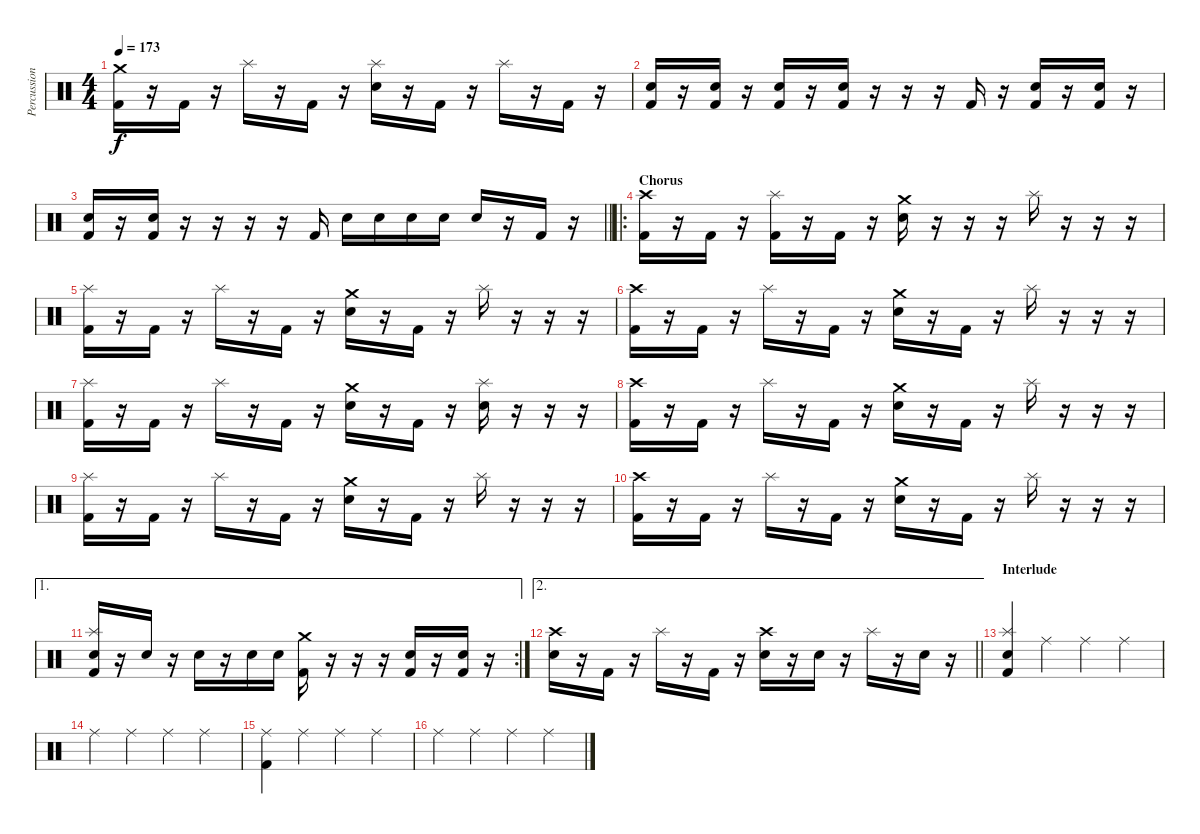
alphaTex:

\track ("Percussion" "Percussion") {instrument percussion}
\staff {score}
\articulation defaults
\ts (4 4)
\tempo 173
\clef neutral
\ks c
("Crash medium (hit)" "Kick (hit) 2").16{dy f} r.16 "Kick (hit) 2".16 r.16 "Splash (hit)".16 r.16 "Kick (hit) 2".16 r.16 ("Splash (hit)" "Electric Snare (hit)").16 r.16 "Kick (hit) 2".16 r.16 "Splash (hit)".16 r.16 "Kick (hit) 2".16 r.16 |
("Electric Snare (hit)" "Kick (hit) 2").16 r.16 ("Electric Snare (hit)" "Kick (hit) 2").16 r.16 ("Electric Snare (hit)" "Kick (hit) 2").16 r.16 ("Electric Snare (hit)" "Kick (hit) 2").16 r.16 r.16 r.16 "Kick (hit) 2".16 r.16 ("Electric Snare (hit)" "Kick (hit) 2").16 r.16 ("Electric Snare (hit)" "Kick (hit) 2").16 r.16 |
\barLineRight lightlight
("Electric Snare (hit)" "Kick (hit) 2").16 r.16 ("Electric Snare (hit)" "Kick (hit) 2").16 r.16 r.16 r.16 r.16 "Kick (hit) 2".16 "Electric Snare (hit)".16 "Electric Snare (hit)".16 "Electric Snare (hit)".16 "Electric Snare (hit)".16 "Electric Snare (hit)".16 r.16 "Kick (hit) 2".16 r.16 |
\ro
\section ("" "Chorus")
("Crash high (hit)" "Kick (hit) 2").16 r.16 "Kick (hit) 2".16 r.16 ("Splash (hit)" "Kick (hit) 2").16 r.16 "Kick (hit) 2".16 r.16 ("Crash medium (hit)" "Electric Snare (hit)").16 r.16 r.16 r.16 "Splash (hit)".16 r.16 r.16 r.16 |
("Splash (hit)" "Kick (hit) 2").16 r.16 "Kick (hit) 2".16 r.16 "Splash (hit)".16 r.16 "Kick (hit) 2".16 r.16 ("Crash medium (hit)" "Electric Snare (hit)").16 r.16 "Kick (hit) 2".16 r.16 "Splash (hit)".16 r.16 r.16 r.16 |
("Crash high (hit)" "Kick (hit) 2").16 r.16 "Kick (hit) 2".16 r.16 "Splash (hit)".16 r.16 "Kick (hit) 2".16 r.16 ("Crash medium (hit)" "Electric Snare (hit)").16 r.16 "Kick (hit) 2".16 r.16 "Splash (hit)".16 r.16 r.16 r.16 |
("Splash (hit)" "Kick (hit) 2").16 r.16 "Kick (hit) 2".16 r.16 "Splash (hit)".16 r.16 "Kick (hit) 2".16 r.16 ("Crash medium (hit)" "Electric Snare (hit)").16 r.16 "Kick (hit) 2".16 r.16 ("Splash (hit)" "Electric Snare (hit)").16 r.16 r.16 r.16 |
("Crash high (hit)" "Kick (hit) 2").16 r.16 "Kick (hit) 2".16 r.16 "Splash (hit)".16 r.16 "Kick (hit) 2".16 r.16 ("Crash medium (hit)" "Electric Snare (hit)").16 r.16 "Kick (hit) 2".16 r.16 "Splash (hit)".16 r.16 r.16 r.16 |
("Splash (hit)" "Kick (hit) 2").16 r.16 "Kick (hit) 2".16 r.16 "Splash (hit)".16 r.16 "Kick (hit) 2".16 r.16 ("Crash medium (hit)" "Electric Snare (hit)").16 r.16 "Kick (hit) 2".16 r.16 "Splash (hit)".16 r.16 r.16 r.16 |
("Crash high (hit)" "Kick (hit) 2").16 r.16 "Kick (hit) 2".16 r.16 "Splash (hit)".16 r.16 "Kick (hit) 2".16 r.16 ("Crash medium (hit)" "Electric Snare (hit)").16 r.16 "Kick (hit) 2".16 r.16 "Splash (hit)".16 r.16 r.16 r.16 |
\ae 1
\rc 2
("Splash (hit)" "Electric Snare (hit)" "Kick (hit) 2").16 r.16 "Electric Snare (hit)".16 r.16 "Electric Snare (hit)".16 r.16 "Electric Snare (hit)".16 "Electric Snare (hit)".16 ("Crash medium (hit)" "Kick (hit) 2").16 r.16 r.16 r.16 ("Electric Snare (hit)" "Kick (hit) 2").16 r.16 ("Electric Snare (hit)" "Kick (hit) 2").16 r.16 |
\ae 2
\barLineRight lightlight
("Crash high (hit)" "Electric Snare (hit)").16 r.16 "Kick (hit) 2".16 r.16 "Splash (hit)".16 r.16 "Kick (hit) 2".16 r.16 ("Crash high (hit)" "Electric Snare (hit)").16 r.16 "Electric Snare (hit)".16 r.16 "Splash (hit)".16 r.16 "Electric Snare (hit)".16 r.16 |
\section ("" "Interlude")
("Splash (hit)" "Electric Snare (hit)" "Kick (hit) 2").4 "Ride (middle)".4 "Ride (middle)".4 "Ride (middle)".4 |
"Ride (middle)".4 "Ride (middle)".4 "Ride (middle)".4 "Ride (middle)".4 |
("Ride (middle)" "Kick (hit) 2").4 "Ride (middle)".4 "Ride (middle)".4 "Ride (middle)".4 |
"Ride (middle)".4 "Ride (middle)".4 "Ride (middle)".4 "Ride (middle)".4
